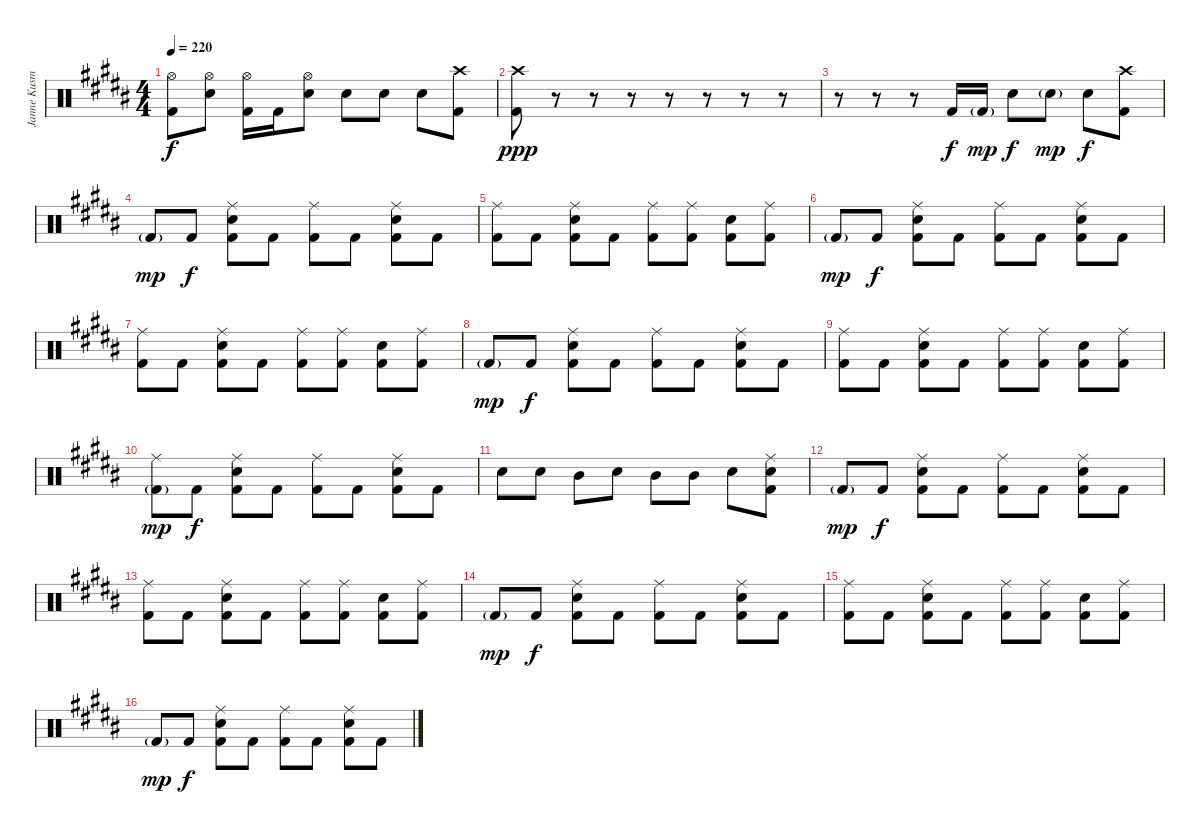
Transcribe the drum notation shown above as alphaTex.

\track ("Janne Kusmin" "Janne Kusm") {instrument percussion}
\staff {score}
\articulation defaults
\ts (4 4)
\tempo 220
\clef neutral
\ks b
("Hi-Hat (open)" "Kick (hit) 2").8{dy f} ("Hi-Hat (open)" "Electric Snare (hit)").8 ("Hi-Hat (open)" "Kick (hit) 2").16 "Kick (hit) 2".16 ("Hi-Hat (open)" "Electric Snare (hit)").8 "Electric Snare (hit)".8 "Electric Snare (hit)".8 "Electric Snare (hit)".8 ("Crash high (hit)" "Kick (hit) 2").8 |
\ks g#minor
("Crash high (hit)" "Kick (hit) 2").8{dy ppp} r.8 r.8 r.8 r.8 r.8 r.8 r.8 |
r.8 r.8 r.8 "Kick (hit) 2".16{dy f} "Kick (hit) 2"{g}.16{dy mp} "Electric Snare (hit)".8{dy f} "Electric Snare (hit)"{g}.8{dy mp} "Electric Snare (hit)".8{dy f} ("Crash high (hit)" "Kick (hit) 2").8 |
"Kick (hit) 2"{g}.8{dy mp} "Kick (hit) 2".8{dy f} ("Ride (middle)" "Electric Snare (hit)" "Kick (hit) 2").8 "Kick (hit) 2".8 ("Ride (middle)" "Kick (hit) 2").8 "Kick (hit) 2".8 ("Ride (middle)" "Electric Snare (hit)" "Kick (hit) 2").8 "Kick (hit) 2".8 |
\ks b
("Ride (middle)" "Kick (hit) 2").8 "Kick (hit) 2".8 ("Ride (middle)" "Electric Snare (hit)" "Kick (hit) 2").8 "Kick (hit) 2".8 ("Ride (middle)" "Kick (hit) 2").8 ("Ride (middle)" "Kick (hit) 2").8 ("Electric Snare (hit)" "Kick (hit) 2").8 ("Ride (middle)" "Kick (hit) 2").8 |
\ks g#minor "Kick (hit) 2"{g}.8{dy mp} "Kick (hit) 2".8{dy f}
("Ride (middle)" "Electric Snare (hit)" "Kick (hit) 2").8 "Kick (hit) 2".8 ("Ride (middle)" "Kick (hit) 2").8 "Kick (hit) 2".8 ("Ride (middle)" "Electric Snare (hit)" "Kick (hit) 2").8 "Kick (hit) 2".8 |
\ks b
("Ride (middle)" "Kick (hit) 2").8 "Kick (hit) 2".8 ("Ride (middle)" "Electric Snare (hit)" "Kick (hit) 2").8 "Kick (hit) 2".8 ("Ride (middle)" "Kick (hit) 2").8 ("Ride (middle)" "Kick (hit) 2").8 ("Electric Snare (hit)" "Kick (hit) 2").8 ("Ride (middle)" "Kick (hit) 2").8 |
\ks g#minor "Kick (hit) 2"{g}.8{dy mp} "Kick (hit) 2".8{dy f}
("Ride (middle)" "Electric Snare (hit)" "Kick (hit) 2").8 "Kick (hit) 2".8 ("Ride (middle)" "Kick (hit) 2").8 "Kick (hit) 2".8 ("Ride (middle)" "Electric Snare (hit)" "Kick (hit) 2").8 "Kick (hit) 2".8 |
\ks b
("Ride (middle)" "Kick (hit) 2").8 "Kick (hit) 2".8 ("Ride (middle)" "Electric Snare (hit)" "Kick (hit) 2").8 "Kick (hit) 2".8 ("Ride (middle)" "Kick (hit) 2").8 ("Ride (middle)" "Kick (hit) 2").8 ("Electric Snare (hit)" "Kick (hit) 2").8 ("Ride (middle)" "Kick (hit) 2").8 |
\ks g#minor
("Ride (middle)" "Kick (hit) 2"{g}).8{dy mp} "Kick (hit) 2".8{dy f} ("Ride (middle)" "Electric Snare (hit)" "Kick (hit) 2").8 "Kick (hit) 2".8 ("Ride (middle)" "Kick (hit) 2").8 "Kick (hit) 2".8 ("Ride (middle)" "Electric Snare (hit)" "Kick (hit) 2").8 "Kick (hit) 2".8 |
\ks b "Electric Snare (hit)".8 "Electric Snare (hit)".8 "Mid Tom (hit)".8 "Electric Snare (hit)".8 "Mid Tom (hit)".8 "Mid Tom (hit)".8 "Electric Snare (hit)".8
("Ride (middle)" "Electric Snare (hit)" "Kick (hit) 2").8 |
\ks g#minor "Kick (hit) 2"{g}.8{dy mp} "Kick (hit) 2".8{dy f}
("Ride (middle)" "Electric Snare (hit)" "Kick (hit) 2").8 "Kick (hit) 2".8 ("Ride (middle)" "Kick (hit) 2").8 "Kick (hit) 2".8 ("Ride (middle)" "Electric Snare (hit)" "Kick (hit) 2").8 "Kick (hit) 2".8 |
\ks b
("Ride (middle)" "Kick (hit) 2").8 "Kick (hit) 2".8 ("Ride (middle)" "Electric Snare (hit)" "Kick (hit) 2").8 "Kick (hit) 2".8 ("Ride (middle)" "Kick (hit) 2").8 ("Ride (middle)" "Kick (hit) 2").8 ("Electric Snare (hit)" "Kick (hit) 2").8 ("Ride (middle)" "Kick (hit) 2").8 |
\ks g#minor "Kick (hit) 2"{g}.8{dy mp} "Kick (hit) 2".8{dy f}
("Ride (middle)" "Electric Snare (hit)" "Kick (hit) 2").8 "Kick (hit) 2".8 ("Ride (middle)" "Kick (hit) 2").8 "Kick (hit) 2".8 ("Ride (middle)" "Electric Snare (hit)" "Kick (hit) 2").8 "Kick (hit) 2".8 |
\ks b
("Ride (middle)" "Kick (hit) 2").8 "Kick (hit) 2".8 ("Ride (middle)" "Electric Snare (hit)" "Kick (hit) 2").8 "Kick (hit) 2".8 ("Ride (middle)" "Kick (hit) 2").8 ("Ride (middle)" "Kick (hit) 2").8 ("Electric Snare (hit)" "Kick (hit) 2").8 ("Ride (middle)" "Kick (hit) 2").8 |
\ks g#minor "Kick (hit) 2"{g}.8{dy mp} "Kick (hit) 2".8{dy f}
("Ride (middle)" "Electric Snare (hit)" "Kick (hit) 2").8 "Kick (hit) 2".8 ("Ride (middle)" "Kick (hit) 2").8 "Kick (hit) 2".8 ("Ride (middle)" "Electric Snare (hit)" "Kick (hit) 2").8 "Kick (hit) 2".8
